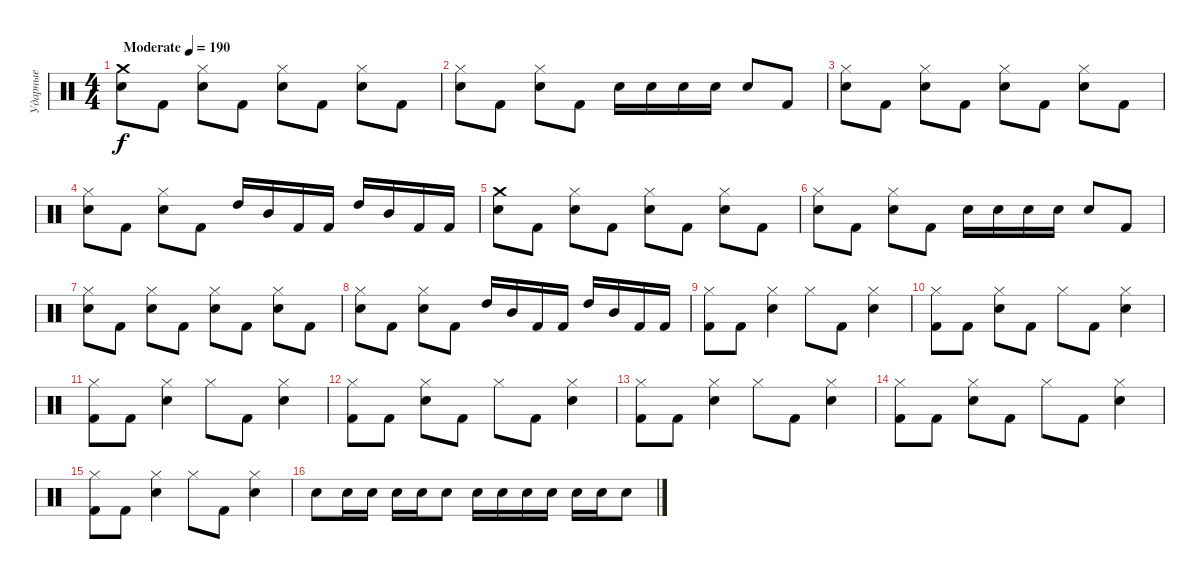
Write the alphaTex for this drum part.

\track ("Ударные" "Ударные") {instrument percussion}
\staff {score}
\articulation defaults
\ts (4 4)
\tempo (190 "Moderate")
\clef neutral
\ks c
("Crash medium (hit)" "Snare (hit) 2").8{dy f} "Kick (hit) 2".8 ("Hi-Hat (closed)" "Snare (hit) 2").8 "Kick (hit) 2".8 ("Hi-Hat (closed)" "Snare (hit) 2").8 "Kick (hit) 2".8 ("Hi-Hat (closed)" "Snare (hit) 2").8 "Kick (hit) 2".8 |
("Hi-Hat (closed)" "Snare (hit) 2").8 "Kick (hit) 2".8 ("Hi-Hat (closed)" "Snare (hit) 2").8 "Kick (hit) 2".8 "Snare (hit) 2".16 "Snare (hit) 2".16 "Snare (hit) 2".16 "Snare (hit) 2".16 "Snare (hit) 2".8 "Kick (hit) 2".8 |
("Hi-Hat (closed)" "Snare (hit) 2").8 "Kick (hit) 2".8 ("Hi-Hat (closed)" "Snare (hit) 2").8 "Kick (hit) 2".8 ("Hi-Hat (closed)" "Snare (hit) 2").8 "Kick (hit) 2".8 ("Hi-Hat (closed)" "Snare (hit) 2").8 "Kick (hit) 2".8 |
("Hi-Hat (closed)" "Snare (hit) 2").8 "Kick (hit) 2".8 ("Hi-Hat (closed)" "Snare (hit) 2").8 "Kick (hit) 2".8 "High Tom (hit)".16 "Mid Tom (hit)".16 "Kick (hit) 2".16 "Kick (hit) 2".16 "High Tom (hit)".16 "Mid Tom (hit)".16 "Kick (hit) 2".16 "Kick (hit) 2".16 |
("Crash medium (hit)" "Snare (hit) 2").8 "Kick (hit) 2".8 ("Hi-Hat (closed)" "Snare (hit) 2").8 "Kick (hit) 2".8 ("Hi-Hat (closed)" "Snare (hit) 2").8 "Kick (hit) 2".8 ("Hi-Hat (closed)" "Snare (hit) 2").8 "Kick (hit) 2".8 |
("Hi-Hat (closed)" "Snare (hit) 2").8 "Kick (hit) 2".8 ("Hi-Hat (closed)" "Snare (hit) 2").8 "Kick (hit) 2".8 "Snare (hit) 2".16 "Snare (hit) 2".16 "Snare (hit) 2".16 "Snare (hit) 2".16 "Snare (hit) 2".8 "Kick (hit) 2".8 |
("Hi-Hat (closed)" "Snare (hit) 2").8 "Kick (hit) 2".8 ("Hi-Hat (closed)" "Snare (hit) 2").8 "Kick (hit) 2".8 ("Hi-Hat (closed)" "Snare (hit) 2").8 "Kick (hit) 2".8 ("Hi-Hat (closed)" "Snare (hit) 2").8 "Kick (hit) 2".8 |
("Hi-Hat (closed)" "Snare (hit) 2").8 "Kick (hit) 2".8 ("Hi-Hat (closed)" "Snare (hit) 2").8 "Kick (hit) 2".8 "High Tom (hit)".16 "Mid Tom (hit)".16 "Kick (hit) 2".16 "Kick (hit) 2".16 "High Tom (hit)".16 "Mid Tom (hit)".16 "Kick (hit) 2".16 "Kick (hit) 2".16 |
("Hi-Hat (closed)" "Kick (hit) 2").8 "Kick (hit) 2".8 ("Hi-Hat (closed)" "Snare (hit) 2").4 "Hi-Hat (closed)".8 "Kick (hit) 2".8 ("Hi-Hat (closed)" "Snare (hit) 2").4 |
("Hi-Hat (closed)" "Kick (hit) 2").8 "Kick (hit) 2".8 ("Hi-Hat (closed)" "Snare (hit) 2").8 "Kick (hit) 2".8 "Hi-Hat (closed)".8 "Kick (hit) 2".8 ("Hi-Hat (closed)" "Snare (hit) 2").4 |
("Hi-Hat (closed)" "Kick (hit) 2").8 "Kick (hit) 2".8 ("Hi-Hat (closed)" "Snare (hit) 2").4 "Hi-Hat (closed)".8 "Kick (hit) 2".8 ("Hi-Hat (closed)" "Snare (hit) 2").4 |
("Hi-Hat (closed)" "Kick (hit) 2").8 "Kick (hit) 2".8 ("Hi-Hat (closed)" "Snare (hit) 2").8 "Kick (hit) 2".8 "Hi-Hat (closed)".8 "Kick (hit) 2".8 ("Hi-Hat (closed)" "Snare (hit) 2").4 |
("Hi-Hat (closed)" "Kick (hit) 2").8 "Kick (hit) 2".8 ("Hi-Hat (closed)" "Snare (hit) 2").4 "Hi-Hat (closed)".8 "Kick (hit) 2".8 ("Hi-Hat (closed)" "Snare (hit) 2").4 |
("Hi-Hat (closed)" "Kick (hit) 2").8 "Kick (hit) 2".8 ("Hi-Hat (closed)" "Snare (hit) 2").8 "Kick (hit) 2".8 "Hi-Hat (closed)".8 "Kick (hit) 2".8 ("Hi-Hat (closed)" "Snare (hit) 2").4 |
("Hi-Hat (closed)" "Kick (hit) 2").8 "Kick (hit) 2".8 ("Hi-Hat (closed)" "Snare (hit) 2").4 "Hi-Hat (closed)".8 "Kick (hit) 2".8 ("Hi-Hat (closed)" "Snare (hit) 2").4 |
"Snare (hit) 2".8 "Snare (hit) 2".16 "Snare (hit) 2".16 "Snare (hit) 2".16 "Snare (hit) 2".16 "Snare (hit) 2".8 "Snare (hit) 2".16 "Snare (hit) 2".16 "Snare (hit) 2".16 "Snare (hit) 2".16 "Snare (hit) 2".16 "Snare (hit) 2".16 "Snare (hit) 2".8
